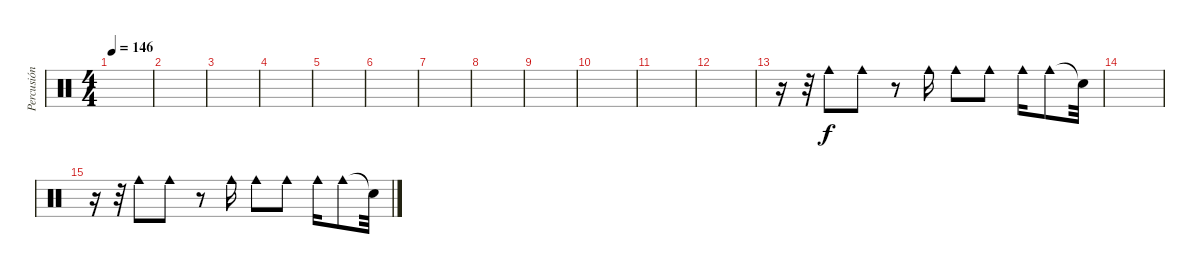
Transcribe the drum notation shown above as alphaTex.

\track ("Percusión" "Percusión") {instrument percussion}
\staff {score}
\articulation defaults
\ts (4 4)
\tempo 146
\clef neutral
\ks c
|
|
|
|
|
|
|
|
|
|
|
|
r.16 r.32 "Cowbell medium (hit)".8 "Cowbell medium (hit)".8 r.8 "Cowbell medium (hit)".16 "Cowbell medium (hit)".8 "Cowbell medium (hit)".8 "Cowbell medium (hit)".16 "Cowbell medium (hit)".8 "Snare (hit)"{t}.32 |
|
r.16 r.32 "Cowbell medium (hit)".8 "Cowbell medium (hit)".8 r.8 "Cowbell medium (hit)".16 "Cowbell medium (hit)".8 "Cowbell medium (hit)".8 "Cowbell medium (hit)".16 "Cowbell medium (hit)".8 "Snare (hit)"{t}.32
